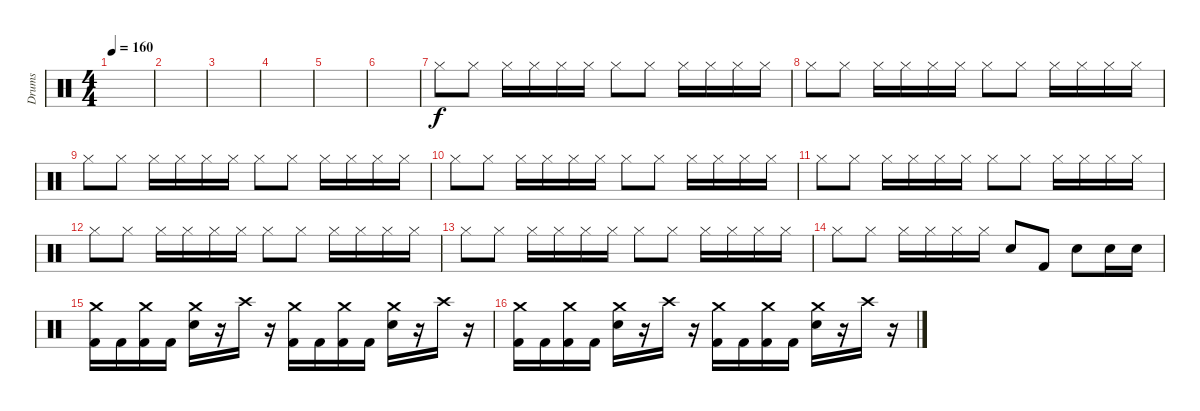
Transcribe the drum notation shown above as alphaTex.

\track ("Drums" "Drums") {instrument percussion}
\staff {score}
\articulation defaults
\ts (4 4)
\tempo 160
\clef neutral
\ks c
|
|
|
|
|
|
"Hi-Hat (closed)".8 "Hi-Hat (closed)".8 "Hi-Hat (closed)".16 "Hi-Hat (closed)".16 "Hi-Hat (closed)".16 "Hi-Hat (closed)".16 "Hi-Hat (closed)".8 "Hi-Hat (closed)".8 "Hi-Hat (closed)".16 "Hi-Hat (closed)".16 "Hi-Hat (closed)".16 "Hi-Hat (closed)".16 |
"Hi-Hat (closed)".8 "Hi-Hat (closed)".8 "Hi-Hat (closed)".16 "Hi-Hat (closed)".16 "Hi-Hat (closed)".16 "Hi-Hat (closed)".16 "Hi-Hat (closed)".8 "Hi-Hat (closed)".8 "Hi-Hat (closed)".16 "Hi-Hat (closed)".16 "Hi-Hat (closed)".16 "Hi-Hat (closed)".16 |
"Hi-Hat (closed)".8 "Hi-Hat (closed)".8 "Hi-Hat (closed)".16 "Hi-Hat (closed)".16 "Hi-Hat (closed)".16 "Hi-Hat (closed)".16 "Hi-Hat (closed)".8 "Hi-Hat (closed)".8 "Hi-Hat (closed)".16 "Hi-Hat (closed)".16 "Hi-Hat (closed)".16 "Hi-Hat (closed)".16 |
"Hi-Hat (closed)".8 "Hi-Hat (closed)".8 "Hi-Hat (closed)".16 "Hi-Hat (closed)".16 "Hi-Hat (closed)".16 "Hi-Hat (closed)".16 "Hi-Hat (closed)".8 "Hi-Hat (closed)".8 "Hi-Hat (closed)".16 "Hi-Hat (closed)".16 "Hi-Hat (closed)".16 "Hi-Hat (closed)".16 |
"Hi-Hat (closed)".8 "Hi-Hat (closed)".8 "Hi-Hat (closed)".16 "Hi-Hat (closed)".16 "Hi-Hat (closed)".16 "Hi-Hat (closed)".16 "Hi-Hat (closed)".8 "Hi-Hat (closed)".8 "Hi-Hat (closed)".16 "Hi-Hat (closed)".16 "Hi-Hat (closed)".16 "Hi-Hat (closed)".16 |
"Hi-Hat (closed)".8 "Hi-Hat (closed)".8 "Hi-Hat (closed)".16 "Hi-Hat (closed)".16 "Hi-Hat (closed)".16 "Hi-Hat (closed)".16 "Hi-Hat (closed)".8 "Hi-Hat (closed)".8 "Hi-Hat (closed)".16 "Hi-Hat (closed)".16 "Hi-Hat (closed)".16 "Hi-Hat (closed)".16 |
"Hi-Hat (closed)".8 "Hi-Hat (closed)".8 "Hi-Hat (closed)".16 "Hi-Hat (closed)".16 "Hi-Hat (closed)".16 "Hi-Hat (closed)".16 "Hi-Hat (closed)".8 "Hi-Hat (closed)".8 "Hi-Hat (closed)".16 "Hi-Hat (closed)".16 "Hi-Hat (closed)".16 "Hi-Hat (closed)".16 |
"Hi-Hat (closed)".8 "Hi-Hat (closed)".8 "Hi-Hat (closed)".16 "Hi-Hat (closed)".16 "Hi-Hat (closed)".16 "Hi-Hat (closed)".16 "Snare (hit) 2".8 "Kick (hit) 2".8 "Snare (hit) 2".8 "Snare (hit) 2".16 "Snare (hit) 2".16 |
("Crash medium (hit)" "Kick (hit) 2").16 "Kick (hit) 2".16 ("Crash medium (hit)" "Kick (hit) 2").16 "Kick (hit) 2".16 ("Crash medium (hit)" "Snare (hit) 2").16 r.16 "Crash high (hit)".16 r.16 ("Crash medium (hit)" "Kick (hit) 2").16 "Kick (hit) 2".16 ("Crash medium (hit)" "Kick (hit) 2").16 "Kick (hit) 2".16 ("Crash medium (hit)" "Snare (hit) 2").16 r.16 "Crash high (hit)".16 r.16 |
("Crash medium (hit)" "Kick (hit) 2").16 "Kick (hit) 2".16 ("Crash medium (hit)" "Kick (hit) 2").16 "Kick (hit) 2".16 ("Crash medium (hit)" "Snare (hit) 2").16 r.16 "Crash high (hit)".16 r.16 ("Crash medium (hit)" "Kick (hit) 2").16 "Kick (hit) 2".16 ("Crash medium (hit)" "Kick (hit) 2").16 "Kick (hit) 2".16 ("Crash medium (hit)" "Snare (hit) 2").16 r.16 "Crash high (hit)".16 r.16
